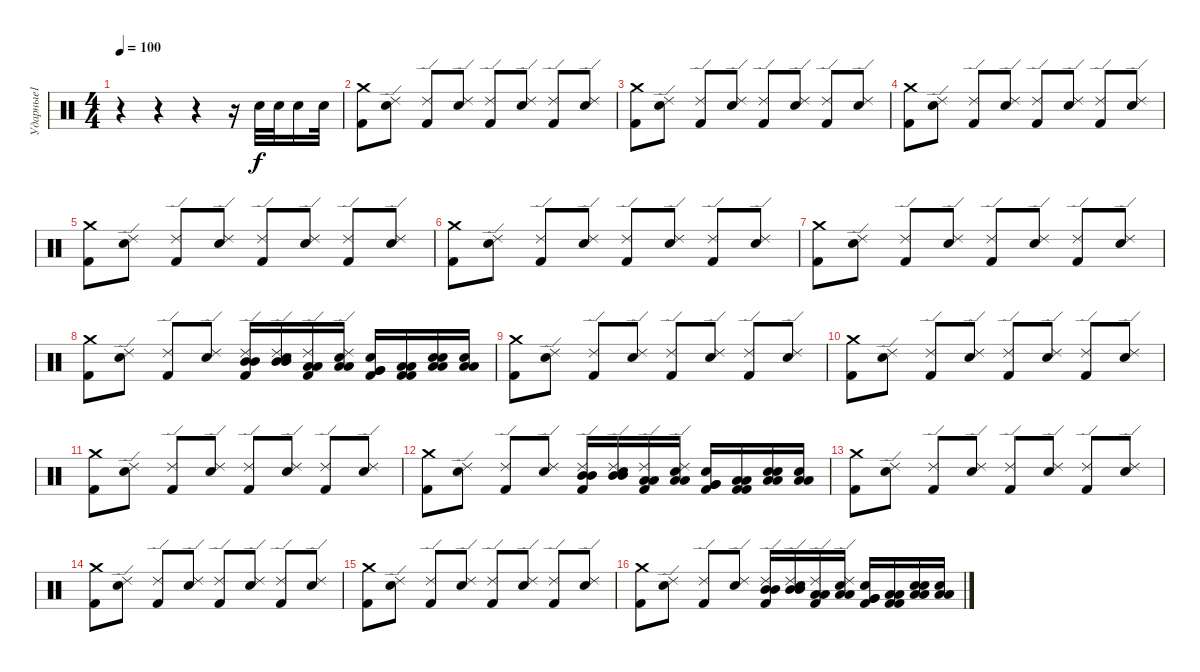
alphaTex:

\track ("Ударные1" "Ударные1") {instrument percussion}
\staff {score}
\articulation defaults
\ts (4 4)
\tempo 100
\clef neutral
\ks c
r.4{dy f} r.4 r.4 r.16 "Snare (hit) 2".32 "Snare (hit) 2".32 "Snare (hit) 2".16 "Snare (hit) 2".32 |
("Kick (hit) 2" "Crash medium (hit)").8 ("Snare (hit) 2" "Ride (edge) 2").8 ("Kick (hit) 2" "Ride (edge) 2").8 ("Snare (hit) 2" "Ride (edge) 2").8 ("Kick (hit) 2" "Ride (edge) 2").8 ("Snare (hit) 2" "Ride (edge) 2").8 ("Kick (hit) 2" "Ride (edge) 2").8 ("Snare (hit) 2" "Ride (edge) 2").8 |
("Kick (hit) 2" "Crash medium (hit)").8 ("Snare (hit) 2" "Ride (edge) 2").8 ("Kick (hit) 2" "Ride (edge) 2").8 ("Snare (hit) 2" "Ride (edge) 2").8 ("Kick (hit) 2" "Ride (edge) 2").8 ("Snare (hit) 2" "Ride (edge) 2").8 ("Kick (hit) 2" "Ride (edge) 2").8 ("Snare (hit) 2" "Ride (edge) 2").8 |
("Kick (hit) 2" "Crash medium (hit)").8 ("Snare (hit) 2" "Ride (edge) 2").8 ("Kick (hit) 2" "Ride (edge) 2").8 ("Snare (hit) 2" "Ride (edge) 2").8 ("Kick (hit) 2" "Ride (edge) 2").8 ("Snare (hit) 2" "Ride (edge) 2").8 ("Kick (hit) 2" "Ride (edge) 2").8 ("Snare (hit) 2" "Ride (edge) 2").8 |
("Kick (hit) 2" "Crash medium (hit)").8 ("Snare (hit) 2" "Ride (edge) 2").8 ("Kick (hit) 2" "Ride (edge) 2").8 ("Snare (hit) 2" "Ride (edge) 2").8 ("Kick (hit) 2" "Ride (edge) 2").8 ("Snare (hit) 2" "Ride (edge) 2").8 ("Kick (hit) 2" "Ride (edge) 2").8 ("Snare (hit) 2" "Ride (edge) 2").8 |
("Kick (hit) 2" "Crash medium (hit)").8 ("Snare (hit) 2" "Ride (edge) 2").8 ("Kick (hit) 2" "Ride (edge) 2").8 ("Snare (hit) 2" "Ride (edge) 2").8 ("Kick (hit) 2" "Ride (edge) 2").8 ("Snare (hit) 2" "Ride (edge) 2").8 ("Kick (hit) 2" "Ride (edge) 2").8 ("Snare (hit) 2" "Ride (edge) 2").8 |
("Kick (hit) 2" "Crash medium (hit)").8 ("Snare (hit) 2" "Ride (edge) 2").8 ("Kick (hit) 2" "Ride (edge) 2").8 ("Snare (hit) 2" "Ride (edge) 2").8 ("Kick (hit) 2" "Ride (edge) 2").8 ("Snare (hit) 2" "Ride (edge) 2").8 ("Kick (hit) 2" "Ride (edge) 2").8 ("Snare (hit) 2" "Ride (edge) 2").8 |
("Kick (hit) 2" "Crash medium (hit)").8 ("Snare (hit) 2" "Ride (edge) 2").8 ("Kick (hit) 2" "Ride (edge) 2").8 ("Snare (hit) 2" "Ride (edge) 2").8 ("Kick (hit) 2" "Ride (edge) 2" "Mid Tom (hit)" "Mid Tom (hit)").16 ("Snare (hit) 2" "Ride (edge) 2" "Mid Tom (hit)" "Mid Tom (hit)").16 ("Kick (hit) 2" "Ride (edge) 2" "Low Tom (hit)" "Low Tom (hit)").16 ("Snare (hit) 2" "Ride (edge) 2" "Low Tom (hit)" "Low Tom (hit)").16 ("Snare (hit) 2" "Kick (hit) 2" "Very Low Tom (hit)" "Very Low Tom (hit)").16 ("Low Floor Tom (hit)" "Low Floor Tom (hit)" "Kick (hit) 2" "Kick (hit) 2").16 ("Snare (hit) 2" "Snare (hit) 2" "Low Floor Tom (hit)" "Low Floor Tom (hit)").16 ("Low Tom (hit)" "Low Tom (hit)" "Snare (hit)").16 |
("Kick (hit) 2" "Crash medium (hit)").8 ("Snare (hit) 2" "Ride (edge) 2").8 ("Kick (hit) 2" "Ride (edge) 2").8 ("Snare (hit) 2" "Ride (edge) 2").8 ("Kick (hit) 2" "Ride (edge) 2").8 ("Snare (hit) 2" "Ride (edge) 2").8 ("Kick (hit) 2" "Ride (edge) 2").8 ("Snare (hit) 2" "Ride (edge) 2").8 |
("Kick (hit) 2" "Crash medium (hit)").8 ("Snare (hit) 2" "Ride (edge) 2").8 ("Kick (hit) 2" "Ride (edge) 2").8 ("Snare (hit) 2" "Ride (edge) 2").8 ("Kick (hit) 2" "Ride (edge) 2").8 ("Snare (hit) 2" "Ride (edge) 2").8 ("Kick (hit) 2" "Ride (edge) 2").8 ("Snare (hit) 2" "Ride (edge) 2").8 |
("Kick (hit) 2" "Crash medium (hit)").8 ("Snare (hit) 2" "Ride (edge) 2").8 ("Kick (hit) 2" "Ride (edge) 2").8 ("Snare (hit) 2" "Ride (edge) 2").8 ("Kick (hit) 2" "Ride (edge) 2").8 ("Snare (hit) 2" "Ride (edge) 2").8 ("Kick (hit) 2" "Ride (edge) 2").8 ("Snare (hit) 2" "Ride (edge) 2").8 |
("Kick (hit) 2" "Crash medium (hit)").8 ("Snare (hit) 2" "Ride (edge) 2").8 ("Kick (hit) 2" "Ride (edge) 2").8 ("Snare (hit) 2" "Ride (edge) 2").8 ("Kick (hit) 2" "Ride (edge) 2" "Mid Tom (hit)" "Mid Tom (hit)").16 ("Snare (hit) 2" "Ride (edge) 2" "Mid Tom (hit)" "Mid Tom (hit)").16 ("Kick (hit) 2" "Ride (edge) 2" "Low Tom (hit)" "Low Tom (hit)").16 ("Snare (hit) 2" "Ride (edge) 2" "Low Tom (hit)" "Low Tom (hit)").16 ("Snare (hit) 2" "Kick (hit) 2" "Very Low Tom (hit)" "Very Low Tom (hit)").16 ("Low Floor Tom (hit)" "Low Floor Tom (hit)" "Kick (hit) 2" "Kick (hit) 2").16 ("Snare (hit) 2" "Snare (hit) 2" "Low Floor Tom (hit)" "Low Floor Tom (hit)").16 ("Low Tom (hit)" "Low Tom (hit)" "Snare (hit)").16 |
("Kick (hit) 2" "Crash medium (hit)").8 ("Snare (hit) 2" "Ride (edge) 2").8 ("Kick (hit) 2" "Ride (edge) 2").8 ("Snare (hit) 2" "Ride (edge) 2").8 ("Kick (hit) 2" "Ride (edge) 2").8 ("Snare (hit) 2" "Ride (edge) 2").8 ("Kick (hit) 2" "Ride (edge) 2").8 ("Snare (hit) 2" "Ride (edge) 2").8 |
("Kick (hit) 2" "Crash medium (hit)").8 ("Snare (hit) 2" "Ride (edge) 2").8 ("Kick (hit) 2" "Ride (edge) 2").8 ("Snare (hit) 2" "Ride (edge) 2").8 ("Kick (hit) 2" "Ride (edge) 2").8 ("Snare (hit) 2" "Ride (edge) 2").8 ("Kick (hit) 2" "Ride (edge) 2").8 ("Snare (hit) 2" "Ride (edge) 2").8 |
("Kick (hit) 2" "Crash medium (hit)").8 ("Snare (hit) 2" "Ride (edge) 2").8 ("Kick (hit) 2" "Ride (edge) 2").8 ("Snare (hit) 2" "Ride (edge) 2").8 ("Kick (hit) 2" "Ride (edge) 2").8 ("Snare (hit) 2" "Ride (edge) 2").8 ("Kick (hit) 2" "Ride (edge) 2").8 ("Snare (hit) 2" "Ride (edge) 2").8 |
("Kick (hit) 2" "Crash medium (hit)").8 ("Snare (hit) 2" "Ride (edge) 2").8 ("Kick (hit) 2" "Ride (edge) 2").8 ("Snare (hit) 2" "Ride (edge) 2").8 ("Kick (hit) 2" "Ride (edge) 2" "Mid Tom (hit)" "Mid Tom (hit)").16 ("Snare (hit) 2" "Ride (edge) 2" "Mid Tom (hit)" "Mid Tom (hit)").16 ("Kick (hit) 2" "Ride (edge) 2" "Low Tom (hit)" "Low Tom (hit)").16 ("Snare (hit) 2" "Ride (edge) 2" "Low Tom (hit)" "Low Tom (hit)").16 ("Snare (hit) 2" "Kick (hit) 2" "Very Low Tom (hit)" "Very Low Tom (hit)").16 ("Low Floor Tom (hit)" "Low Floor Tom (hit)" "Kick (hit) 2" "Kick (hit) 2").16 ("Snare (hit) 2" "Snare (hit) 2" "Low Floor Tom (hit)" "Low Floor Tom (hit)").16 ("Low Tom (hit)" "Low Tom (hit)" "Snare (hit)").16
